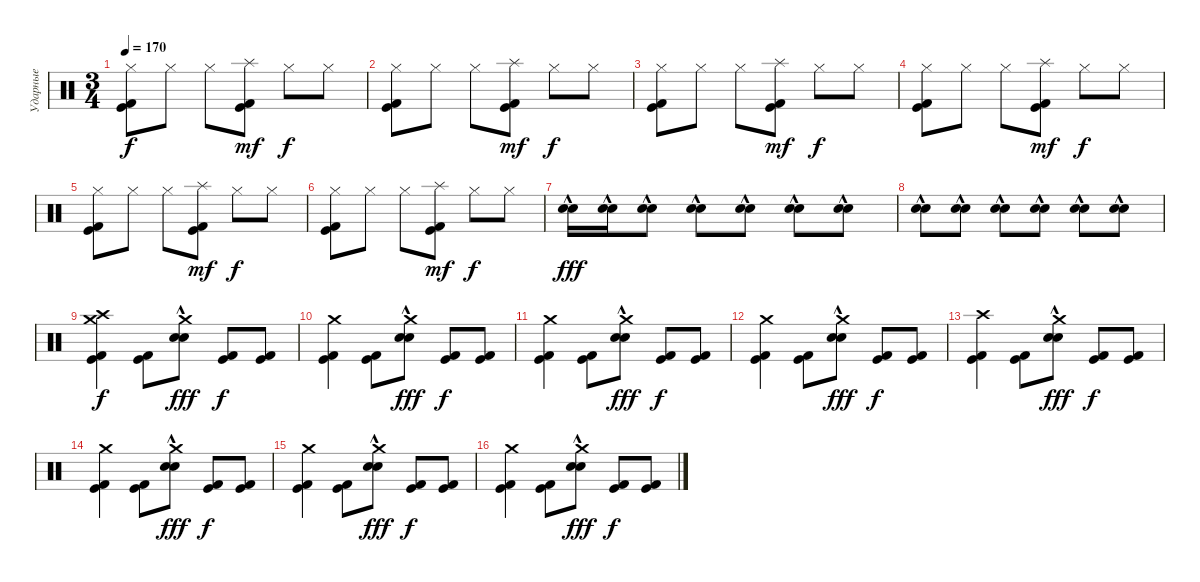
\track ("Ударные" "Ударные") {instrument percussion}
\staff {score}
\articulation defaults
\ts (3 4)
\tempo 170
\clef neutral
\ks c
("Hi-Hat (closed)" "Kick (hit)" "Kick (hit) 2").8{dy f} "Hi-Hat (closed)".8 "Hi-Hat (closed)".8 ("Splash (hit)" "Kick (hit)" "Kick (hit) 2").8{dy mf} "Hi-Hat (closed)".8{dy f} "Hi-Hat (closed)".8 |
("Hi-Hat (closed)" "Kick (hit)" "Kick (hit) 2").8 "Hi-Hat (closed)".8 "Hi-Hat (closed)".8 ("Splash (hit)" "Kick (hit)" "Kick (hit) 2").8{dy mf} "Hi-Hat (closed)".8{dy f} "Hi-Hat (closed)".8 |
("Hi-Hat (closed)" "Kick (hit)" "Kick (hit) 2").8 "Hi-Hat (closed)".8 "Hi-Hat (closed)".8 ("Splash (hit)" "Kick (hit)" "Kick (hit) 2").8{dy mf} "Hi-Hat (closed)".8{dy f} "Hi-Hat (closed)".8 |
("Hi-Hat (closed)" "Kick (hit)" "Kick (hit) 2").8 "Hi-Hat (closed)".8 "Hi-Hat (closed)".8 ("Splash (hit)" "Kick (hit)" "Kick (hit) 2").8{dy mf} "Hi-Hat (closed)".8{dy f} "Hi-Hat (closed)".8 |
("Hi-Hat (closed)" "Kick (hit)" "Kick (hit) 2").8 "Hi-Hat (closed)".8 "Hi-Hat (closed)".8 ("Splash (hit)" "Kick (hit)" "Kick (hit) 2").8{dy mf} "Hi-Hat (closed)".8{dy f} "Hi-Hat (closed)".8 |
("Hi-Hat (closed)" "Kick (hit)" "Kick (hit) 2").8 "Hi-Hat (closed)".8 "Hi-Hat (closed)".8 ("Splash (hit)" "Kick (hit)" "Kick (hit) 2").8{dy mf} "Hi-Hat (closed)".8{dy f} "Hi-Hat (closed)".8 |
("Snare (hit) 2"{hac} "Electric Snare (hit)"{hac}).16{dy fff} ("Snare (hit) 2"{hac} "Electric Snare (hit)"{hac}).16 ("Snare (hit) 2"{hac} "Electric Snare (hit)"{hac}).8 ("Snare (hit) 2"{hac} "Electric Snare (hit)"{hac}).8 ("Snare (hit) 2"{hac} "Electric Snare (hit)"{hac}).8 ("Snare (hit) 2"{hac} "Electric Snare (hit)"{hac}).8 ("Snare (hit) 2"{hac} "Electric Snare (hit)"{hac}).8 |
("Snare (hit) 2"{hac} "Electric Snare (hit)"{hac}).8 ("Snare (hit) 2"{hac} "Electric Snare (hit)"{hac}).8 ("Snare (hit) 2"{hac} "Electric Snare (hit)"{hac}).8 ("Snare (hit) 2"{hac} "Electric Snare (hit)"{hac}).8 ("Snare (hit) 2"{hac} "Electric Snare (hit)"{hac}).8 ("Snare (hit) 2"{hac} "Electric Snare (hit)"{hac}).8 |
("Crash high (hit)" "Kick (hit)" "Kick (hit) 2" "Crash medium (hit)").4{dy f} ("Kick (hit)" "Kick (hit) 2").8 ("Crash medium (hit)" "Snare (hit) 2"{hac} "Electric Snare (hit)"{hac}).8{dy fff} ("Kick (hit)" "Kick (hit) 2").8{dy f} ("Kick (hit)" "Kick (hit) 2").8 |
("Crash medium (hit)" "Kick (hit)" "Kick (hit) 2").4 ("Kick (hit)" "Kick (hit) 2").8 ("Crash medium (hit)" "Snare (hit) 2"{hac} "Electric Snare (hit)"{hac}).8{dy fff} ("Kick (hit)" "Kick (hit) 2").8{dy f} ("Kick (hit)" "Kick (hit) 2").8 |
("Crash medium (hit)" "Kick (hit)" "Kick (hit) 2").4 ("Kick (hit)" "Kick (hit) 2").8 ("Crash medium (hit)" "Snare (hit) 2"{hac} "Electric Snare (hit)"{hac}).8{dy fff} ("Kick (hit)" "Kick (hit) 2").8{dy f} ("Kick (hit)" "Kick (hit) 2").8 |
("Crash medium (hit)" "Kick (hit)" "Kick (hit) 2").4 ("Kick (hit)" "Kick (hit) 2").8 ("Crash medium (hit)" "Snare (hit) 2"{hac} "Electric Snare (hit)"{hac}).8{dy fff} ("Kick (hit)" "Kick (hit) 2").8{dy f} ("Kick (hit)" "Kick (hit) 2").8 |
("Crash high (hit)" "Kick (hit)" "Kick (hit) 2").4 ("Kick (hit)" "Kick (hit) 2").8 ("Crash medium (hit)" "Snare (hit) 2"{hac} "Electric Snare (hit)"{hac}).8{dy fff} ("Kick (hit)" "Kick (hit) 2").8{dy f} ("Kick (hit)" "Kick (hit) 2").8 |
("Crash medium (hit)" "Kick (hit)" "Kick (hit) 2").4 ("Kick (hit)" "Kick (hit) 2").8 ("Crash medium (hit)" "Snare (hit) 2"{hac} "Electric Snare (hit)"{hac}).8{dy fff} ("Kick (hit)" "Kick (hit) 2").8{dy f} ("Kick (hit)" "Kick (hit) 2").8 |
("Crash medium (hit)" "Kick (hit)" "Kick (hit) 2").4 ("Kick (hit)" "Kick (hit) 2").8 ("Crash medium (hit)" "Snare (hit) 2"{hac} "Electric Snare (hit)"{hac}).8{dy fff} ("Kick (hit)" "Kick (hit) 2").8{dy f} ("Kick (hit)" "Kick (hit) 2").8 |
("Crash medium (hit)" "Kick (hit)" "Kick (hit) 2").4 ("Kick (hit)" "Kick (hit) 2").8 ("Crash medium (hit)" "Snare (hit) 2"{hac} "Electric Snare (hit)"{hac}).8{dy fff} ("Kick (hit)" "Kick (hit) 2").8{dy f} ("Kick (hit)" "Kick (hit) 2").8
